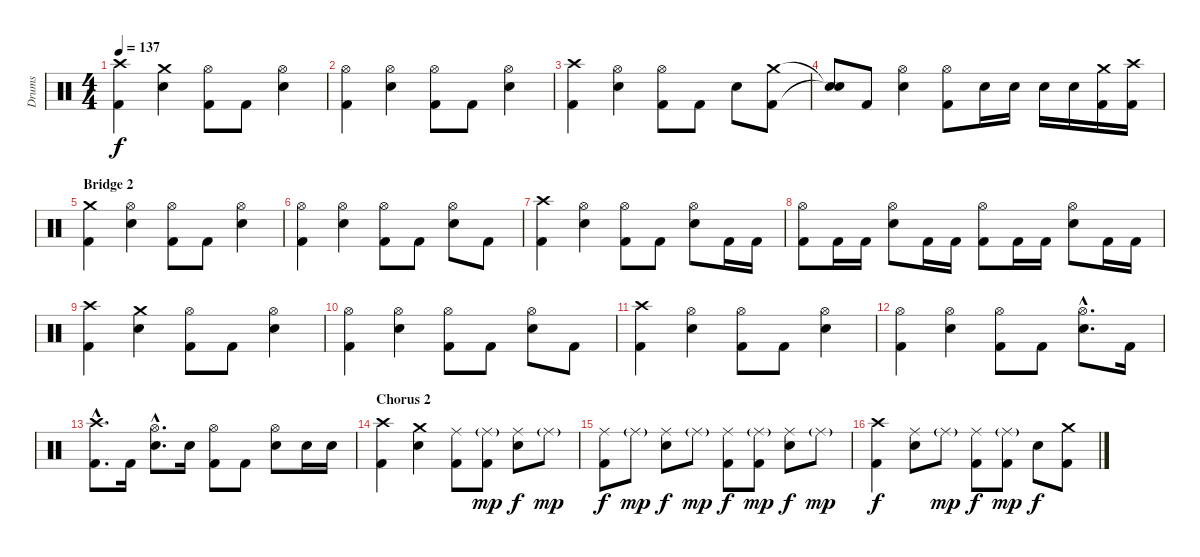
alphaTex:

\track ("Drums" "Drums") {instrument percussion}
\staff {score}
\articulation defaults
\ts (4 4)
\tempo 137
\clef neutral
\ks c
("Crash high (hit)" "Kick (hit) 2").4{dy f} ("Crash medium (hit)" "Snare (hit) 2").4 ("Hi-Hat (open)" "Kick (hit) 2").8 "Kick (hit) 2".8 ("Hi-Hat (open)" "Snare (hit) 2").4 |
("Hi-Hat (open)" "Kick (hit) 2").4 ("Hi-Hat (open)" "Snare (hit) 2").4 ("Hi-Hat (open)" "Kick (hit) 2").8 "Kick (hit) 2".8 ("Hi-Hat (open)" "Snare (hit) 2").4 |
("Crash high (hit)" "Kick (hit) 2").4 ("Hi-Hat (open)" "Snare (hit) 2").4 ("Hi-Hat (open)" "Kick (hit) 2").8 "Kick (hit) 2".8 "Snare (hit) 2".8 ("Crash medium (hit)" "Kick (hit) 2").8 |
("Snare (hit)"{t} "Snare (hit)"{t}).8 "Kick (hit) 2".8 ("Hi-Hat (open)" "Snare (hit) 2").4 ("Hi-Hat (open)" "Kick (hit) 2").8 "Snare (hit) 2".16 "Snare (hit) 2".16 "Snare (hit) 2".16 "Snare (hit) 2".16 ("Crash medium (hit)" "Kick (hit) 2").16 ("Crash high (hit)" "Kick (hit) 2").16 |
\section ("" "Bridge 2")
("Crash medium (hit)" "Kick (hit) 2").4 ("Hi-Hat (open)" "Snare (hit) 2").4 ("Hi-Hat (open)" "Kick (hit) 2").8 "Kick (hit) 2".8 ("Hi-Hat (open)" "Snare (hit) 2").4 |
("Hi-Hat (open)" "Kick (hit) 2").4 ("Hi-Hat (open)" "Snare (hit) 2").4 ("Hi-Hat (open)" "Kick (hit) 2").8 "Kick (hit) 2".8 ("Hi-Hat (open)" "Snare (hit) 2").8 "Kick (hit) 2".8 |
("Crash high (hit)" "Kick (hit) 2").4 ("Hi-Hat (open)" "Snare (hit) 2").4 ("Hi-Hat (open)" "Kick (hit) 2").8 "Kick (hit) 2".8 ("Hi-Hat (open)" "Snare (hit) 2").8 "Kick (hit) 2".16 "Kick (hit) 2".16 |
("Hi-Hat (open)" "Kick (hit) 2").8 "Kick (hit) 2".16 "Kick (hit) 2".16 ("Hi-Hat (open)" "Snare (hit) 2").8 "Kick (hit) 2".16 "Kick (hit) 2".16 ("Hi-Hat (open)" "Kick (hit) 2").8 "Kick (hit) 2".16 "Kick (hit) 2".16 ("Hi-Hat (open)" "Snare (hit) 2").8 "Kick (hit) 2".16 "Kick (hit) 2".16 |
("Crash high (hit)" "Kick (hit) 2").4 ("Crash medium (hit)" "Snare (hit) 2").4 ("Hi-Hat (open)" "Kick (hit) 2").8 "Kick (hit) 2".8 ("Hi-Hat (open)" "Snare (hit) 2").4 |
("Hi-Hat (open)" "Kick (hit) 2").4 ("Hi-Hat (open)" "Snare (hit) 2").4 ("Hi-Hat (open)" "Kick (hit) 2").8 "Kick (hit) 2".8 ("Hi-Hat (open)" "Snare (hit) 2").8 "Kick (hit) 2".8 |
("Crash high (hit)" "Kick (hit) 2").4 ("Hi-Hat (open)" "Snare (hit) 2").4 ("Hi-Hat (open)" "Kick (hit) 2").8 "Kick (hit) 2".8 ("Hi-Hat (open)" "Snare (hit) 2").4 |
("Hi-Hat (open)" "Kick (hit) 2").4 ("Hi-Hat (open)" "Snare (hit) 2").4 ("Hi-Hat (open)" "Kick (hit) 2").8 "Kick (hit) 2".8 ("Hi-Hat (open)"{hac} "Snare (hit) 2"{hac}).8{d} "Kick (hit) 2".16 |
("Crash high (hit)"{hac} "Kick (hit) 2"{hac}).8{d} "Kick (hit) 2".16 ("Hi-Hat (open)"{hac} "Snare (hit) 2"{hac}).8{d} "Snare (hit) 2".16 ("Hi-Hat (open)" "Kick (hit) 2").8 "Kick (hit) 2".8 ("Hi-Hat (open)" "Snare (hit) 2").8 "Snare (hit) 2".16 "Snare (hit) 2".16 |
\section ("" "Chorus 2")
("Crash high (hit)" "Kick (hit) 2").4 ("Crash medium (hit)" "Snare (hit) 2").4 ("Ride (middle)" "Kick (hit) 2").8 ("Ride (middle)"{g} "Kick (hit) 2").8{dy mp} ("Ride (middle)" "Snare (hit) 2").8{dy f} "Ride (middle)"{g}.8{dy mp} |
("Ride (middle)" "Kick (hit) 2").8{dy f} "Ride (middle)"{g}.8{dy mp} ("Ride (middle)" "Snare (hit) 2").8{dy f} "Ride (middle)"{g}.8{dy mp} ("Ride (middle)" "Kick (hit) 2").8{dy f} ("Ride (middle)"{g} "Kick (hit) 2").8{dy mp} ("Ride (middle)" "Snare (hit) 2").8{dy f} "Ride (middle)"{g}.8{dy mp} |
("Crash high (hit)" "Kick (hit) 2").4{dy f} ("Ride (middle)" "Snare (hit) 2").8 "Ride (middle)"{g}.8{dy mp} ("Ride (middle)" "Kick (hit) 2").8{dy f} ("Ride (middle)"{g} "Kick (hit) 2").8{dy mp} "Snare (hit) 2".8{dy f} ("Crash medium (hit)" "Kick (hit) 2").8
